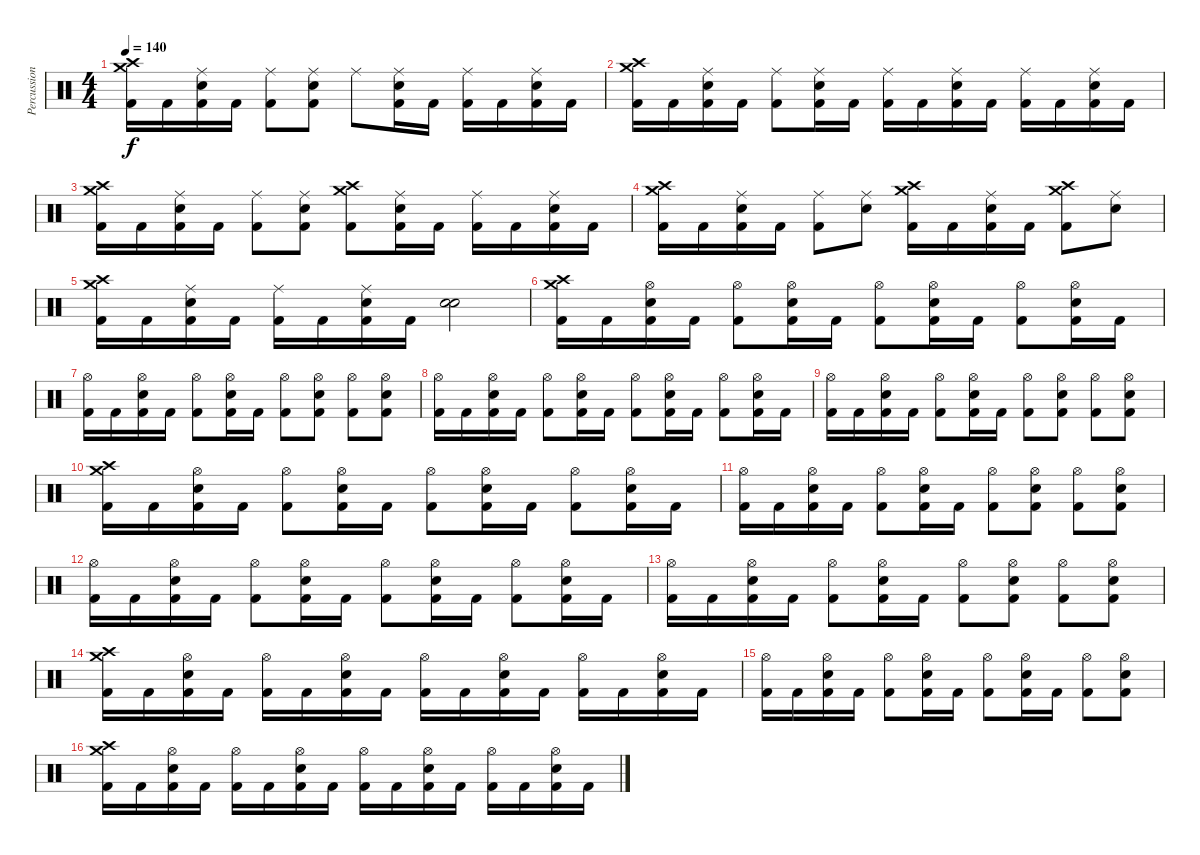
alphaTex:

\track ("Percussion" "Percussion") {instrument percussion}
\staff {score}
\articulation defaults
\ts (4 4)
\tempo 140
\clef neutral
\ks c
("Kick (hit) 2" "Crash high (hit)" "Crash medium (hit)").16{dy f} "Kick (hit) 2".16 ("Kick (hit) 2" "Electric Snare (hit)" "Ride (middle)").16 "Kick (hit) 2".16 ("Kick (hit) 2" "Ride (middle)").8 ("Kick (hit) 2" "Electric Snare (hit)" "Ride (middle)").8 "Ride (middle)".8 ("Kick (hit) 2" "Electric Snare (hit)" "Ride (middle)").16 "Kick (hit) 2".16 ("Kick (hit) 2" "Ride (middle)").16 "Kick (hit) 2".16 ("Kick (hit) 2" "Electric Snare (hit)" "Ride (middle)").16 "Kick (hit) 2".16 |
("Kick (hit) 2" "Crash high (hit)" "Crash medium (hit)").16 "Kick (hit) 2".16 ("Kick (hit) 2" "Electric Snare (hit)" "Ride (middle)").16 "Kick (hit) 2".16 ("Kick (hit) 2" "Ride (middle)").8 ("Kick (hit) 2" "Electric Snare (hit)" "Ride (middle)").16 "Kick (hit) 2".16 ("Kick (hit) 2" "Ride (middle)").16 "Kick (hit) 2".16 ("Kick (hit) 2" "Electric Snare (hit)" "Ride (middle)").16 "Kick (hit) 2".16 ("Kick (hit) 2" "Ride (middle)").16 "Kick (hit) 2".16 ("Kick (hit) 2" "Electric Snare (hit)" "Ride (middle)").16 "Kick (hit) 2".16 |
("Kick (hit) 2" "Crash high (hit)" "Crash medium (hit)").16 "Kick (hit) 2".16 ("Kick (hit) 2" "Electric Snare (hit)" "Ride (middle)").16 "Kick (hit) 2".16 ("Kick (hit) 2" "Ride (middle)").8 ("Kick (hit) 2" "Electric Snare (hit)" "Ride (middle)").8 ("Kick (hit) 2" "Crash high (hit)" "Crash medium (hit)").8 ("Kick (hit) 2" "Electric Snare (hit)" "Ride (middle)").16 "Kick (hit) 2".16 ("Kick (hit) 2" "Ride (middle)").16 "Kick (hit) 2".16 ("Kick (hit) 2" "Electric Snare (hit)" "Ride (middle)").16 "Kick (hit) 2".16 |
("Kick (hit) 2" "Crash high (hit)" "Crash medium (hit)").16 "Kick (hit) 2".16 ("Kick (hit) 2" "Electric Snare (hit)" "Ride (middle)").16 "Kick (hit) 2".16 ("Kick (hit) 2" "Ride (middle)").8 ("Electric Snare (hit)" "Ride (middle)").8 ("Kick (hit) 2" "Crash high (hit)" "Crash medium (hit)").16 "Kick (hit) 2".16 ("Kick (hit) 2" "Electric Snare (hit)" "Ride (middle)").16 "Kick (hit) 2".16 ("Kick (hit) 2" "Crash high (hit)" "Crash medium (hit)").8 ("Electric Snare (hit)" "Ride (middle)").8 |
("Kick (hit) 2" "Crash high (hit)" "Crash medium (hit)").16 "Kick (hit) 2".16 ("Kick (hit) 2" "Electric Snare (hit)" "Ride (middle)").16 "Kick (hit) 2".16 ("Kick (hit) 2" "Ride (middle)").16 "Kick (hit) 2".16 ("Kick (hit) 2" "Electric Snare (hit)" "Ride (middle)").16 "Kick (hit) 2".16 ("Electric Snare (hit)" "Electric Snare (hit)").2 |
("Kick (hit) 2" "Crash high (hit)" "Crash medium (hit)").16 "Kick (hit) 2".16 ("Kick (hit) 2" "Electric Snare (hit)" "Hi-Hat (open)").16 "Kick (hit) 2".16 ("Kick (hit) 2" "Hi-Hat (open)").8 ("Kick (hit) 2" "Electric Snare (hit)" "Hi-Hat (open)").16 "Kick (hit) 2".16 ("Kick (hit) 2" "Hi-Hat (open)").8 ("Kick (hit) 2" "Electric Snare (hit)" "Hi-Hat (open)").16 "Kick (hit) 2".16 ("Kick (hit) 2" "Hi-Hat (open)").8 ("Kick (hit) 2" "Electric Snare (hit)" "Hi-Hat (open)").16 "Kick (hit) 2".16 |
("Kick (hit) 2" "Hi-Hat (open)").16 "Kick (hit) 2".16 ("Kick (hit) 2" "Electric Snare (hit)" "Hi-Hat (open)").16 "Kick (hit) 2".16 ("Kick (hit) 2" "Hi-Hat (open)").8 ("Kick (hit) 2" "Electric Snare (hit)" "Hi-Hat (open)").16 "Kick (hit) 2".16 ("Kick (hit) 2" "Hi-Hat (open)").8 ("Kick (hit) 2" "Electric Snare (hit)" "Hi-Hat (open)").8 ("Kick (hit) 2" "Hi-Hat (open)").8 ("Kick (hit) 2" "Electric Snare (hit)" "Hi-Hat (open)").8 |
("Kick (hit) 2" "Hi-Hat (open)").16 "Kick (hit) 2".16 ("Kick (hit) 2" "Electric Snare (hit)" "Hi-Hat (open)").16 "Kick (hit) 2".16 ("Kick (hit) 2" "Hi-Hat (open)").8 ("Kick (hit) 2" "Electric Snare (hit)" "Hi-Hat (open)").16 "Kick (hit) 2".16 ("Kick (hit) 2" "Hi-Hat (open)").8 ("Kick (hit) 2" "Electric Snare (hit)" "Hi-Hat (open)").16 "Kick (hit) 2".16 ("Kick (hit) 2" "Hi-Hat (open)").8 ("Kick (hit) 2" "Electric Snare (hit)" "Hi-Hat (open)").16 "Kick (hit) 2".16 |
("Kick (hit) 2" "Hi-Hat (open)").16 "Kick (hit) 2".16 ("Kick (hit) 2" "Electric Snare (hit)" "Hi-Hat (open)").16 "Kick (hit) 2".16 ("Kick (hit) 2" "Hi-Hat (open)").8 ("Kick (hit) 2" "Electric Snare (hit)" "Hi-Hat (open)").16 "Kick (hit) 2".16 ("Kick (hit) 2" "Hi-Hat (open)").8 ("Kick (hit) 2" "Electric Snare (hit)" "Hi-Hat (open)").8 ("Kick (hit) 2" "Hi-Hat (open)").8 ("Kick (hit) 2" "Electric Snare (hit)" "Hi-Hat (open)").8 |
("Kick (hit) 2" "Crash high (hit)" "Crash medium (hit)").16 "Kick (hit) 2".16 ("Kick (hit) 2" "Electric Snare (hit)" "Hi-Hat (open)").16 "Kick (hit) 2".16 ("Kick (hit) 2" "Hi-Hat (open)").8 ("Kick (hit) 2" "Electric Snare (hit)" "Hi-Hat (open)").16 "Kick (hit) 2".16 ("Kick (hit) 2" "Hi-Hat (open)").8 ("Kick (hit) 2" "Electric Snare (hit)" "Hi-Hat (open)").16 "Kick (hit) 2".16 ("Kick (hit) 2" "Hi-Hat (open)").8 ("Kick (hit) 2" "Electric Snare (hit)" "Hi-Hat (open)").16 "Kick (hit) 2".16 |
("Kick (hit) 2" "Hi-Hat (open)").16 "Kick (hit) 2".16 ("Kick (hit) 2" "Electric Snare (hit)" "Hi-Hat (open)").16 "Kick (hit) 2".16 ("Kick (hit) 2" "Hi-Hat (open)").8 ("Kick (hit) 2" "Electric Snare (hit)" "Hi-Hat (open)").16 "Kick (hit) 2".16 ("Kick (hit) 2" "Hi-Hat (open)").8 ("Kick (hit) 2" "Electric Snare (hit)" "Hi-Hat (open)").8 ("Kick (hit) 2" "Hi-Hat (open)").8 ("Kick (hit) 2" "Electric Snare (hit)" "Hi-Hat (open)").8 |
("Kick (hit) 2" "Hi-Hat (open)").16 "Kick (hit) 2".16 ("Kick (hit) 2" "Electric Snare (hit)" "Hi-Hat (open)").16 "Kick (hit) 2".16 ("Kick (hit) 2" "Hi-Hat (open)").8 ("Kick (hit) 2" "Electric Snare (hit)" "Hi-Hat (open)").16 "Kick (hit) 2".16 ("Kick (hit) 2" "Hi-Hat (open)").8 ("Kick (hit) 2" "Electric Snare (hit)" "Hi-Hat (open)").16 "Kick (hit) 2".16 ("Kick (hit) 2" "Hi-Hat (open)").8 ("Kick (hit) 2" "Electric Snare (hit)" "Hi-Hat (open)").16 "Kick (hit) 2".16 |
("Kick (hit) 2" "Hi-Hat (open)").16 "Kick (hit) 2".16 ("Kick (hit) 2" "Electric Snare (hit)" "Hi-Hat (open)").16 "Kick (hit) 2".16 ("Kick (hit) 2" "Hi-Hat (open)").8 ("Kick (hit) 2" "Electric Snare (hit)" "Hi-Hat (open)").16 "Kick (hit) 2".16 ("Kick (hit) 2" "Hi-Hat (open)").8 ("Kick (hit) 2" "Electric Snare (hit)" "Hi-Hat (open)").8 ("Kick (hit) 2" "Hi-Hat (open)").8 ("Kick (hit) 2" "Electric Snare (hit)" "Hi-Hat (open)").8 |
("Kick (hit) 2" "Crash high (hit)" "Crash medium (hit)").16 "Kick (hit) 2".16 ("Kick (hit) 2" "Electric Snare (hit)" "Hi-Hat (open)").16 "Kick (hit) 2".16 ("Kick (hit) 2" "Hi-Hat (open)").16 "Kick (hit) 2".16 ("Kick (hit) 2" "Electric Snare (hit)" "Hi-Hat (open)").16 "Kick (hit) 2".16 ("Kick (hit) 2" "Hi-Hat (open)").16 "Kick (hit) 2".16 ("Kick (hit) 2" "Electric Snare (hit)" "Hi-Hat (open)").16 "Kick (hit) 2".16 ("Kick (hit) 2" "Hi-Hat (open)").16 "Kick (hit) 2".16 ("Kick (hit) 2" "Electric Snare (hit)" "Hi-Hat (open)").16 "Kick (hit) 2".16 |
("Kick (hit) 2" "Hi-Hat (open)").16 "Kick (hit) 2".16 ("Kick (hit) 2" "Electric Snare (hit)" "Hi-Hat (open)").16 "Kick (hit) 2".16 ("Kick (hit) 2" "Hi-Hat (open)").8 ("Kick (hit) 2" "Electric Snare (hit)" "Hi-Hat (open)").16 "Kick (hit) 2".16 ("Kick (hit) 2" "Hi-Hat (open)").8 ("Kick (hit) 2" "Electric Snare (hit)" "Hi-Hat (open)").16 "Kick (hit) 2".16 ("Kick (hit) 2" "Hi-Hat (open)").8 ("Kick (hit) 2" "Electric Snare (hit)" "Hi-Hat (open)").8 |
("Kick (hit) 2" "Crash high (hit)" "Crash medium (hit)").16 "Kick (hit) 2".16 ("Kick (hit) 2" "Electric Snare (hit)" "Hi-Hat (open)").16 "Kick (hit) 2".16 ("Kick (hit) 2" "Hi-Hat (open)").16 "Kick (hit) 2".16 ("Kick (hit) 2" "Electric Snare (hit)" "Hi-Hat (open)").16 "Kick (hit) 2".16 ("Kick (hit) 2" "Hi-Hat (open)").16 "Kick (hit) 2".16 ("Kick (hit) 2" "Electric Snare (hit)" "Hi-Hat (open)").16 "Kick (hit) 2".16 ("Kick (hit) 2" "Hi-Hat (open)").16 "Kick (hit) 2".16 ("Kick (hit) 2" "Electric Snare (hit)" "Hi-Hat (open)").16 "Kick (hit) 2".16
